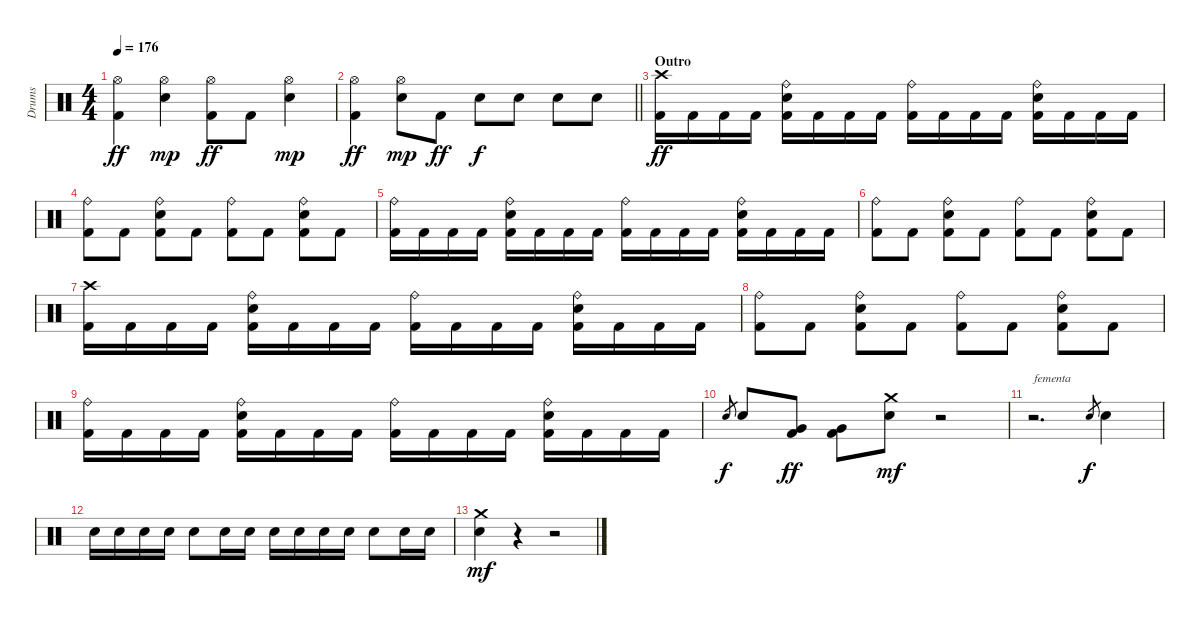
\track ("Drums" "Drums") {instrument percussion}
\staff {score}
\articulation defaults
\ts (4 4)
\tempo 176
\clef neutral
\ks c
("Hi-Hat (open)" "Kick (hit) 2").4{dy ff} ("Hi-Hat (open)" "Electric Snare (hit)").4{dy mp} ("Hi-Hat (open)" "Kick (hit) 2").8{dy ff} "Kick (hit) 2".8 ("Hi-Hat (open)" "Electric Snare (hit)").4{dy mp} |
\barLineRight lightlight
("Hi-Hat (open)" "Kick (hit) 2").4{dy ff} ("Hi-Hat (open)" "Electric Snare (hit)").8{dy mp} "Kick (hit) 2".8{dy ff} "Electric Snare (hit)".8{dy f} "Electric Snare (hit)".8 "Electric Snare (hit)".8 "Electric Snare (hit)".8 |
\section ("" "Outro")
("Crash high (hit)" "Kick (hit) 2").16{dy ff} "Kick (hit) 2".16 "Kick (hit) 2".16 "Kick (hit) 2".16 ("Ride (bell)" "Electric Snare (hit)" "Kick (hit) 2").16 "Kick (hit) 2".16 "Kick (hit) 2".16 "Kick (hit) 2".16 ("Ride (bell)" "Kick (hit) 2").16 "Kick (hit) 2".16 "Kick (hit) 2".16 "Kick (hit) 2".16 ("Ride (bell)" "Electric Snare (hit)" "Kick (hit) 2").16 "Kick (hit) 2".16 "Kick (hit) 2".16 "Kick (hit) 2".16 |
("Ride (bell)" "Kick (hit) 2").8 "Kick (hit) 2".8 ("Ride (bell)" "Electric Snare (hit)" "Kick (hit) 2").8 "Kick (hit) 2".8 ("Ride (bell)" "Kick (hit) 2").8 "Kick (hit) 2".8 ("Ride (bell)" "Electric Snare (hit)" "Kick (hit) 2").8 "Kick (hit) 2".8 |
("Ride (bell)" "Kick (hit) 2").16 "Kick (hit) 2".16 "Kick (hit) 2".16 "Kick (hit) 2".16 ("Ride (bell)" "Electric Snare (hit)" "Kick (hit) 2").16 "Kick (hit) 2".16 "Kick (hit) 2".16 "Kick (hit) 2".16 ("Ride (bell)" "Kick (hit) 2").16 "Kick (hit) 2".16 "Kick (hit) 2".16 "Kick (hit) 2".16 ("Ride (bell)" "Electric Snare (hit)" "Kick (hit) 2").16 "Kick (hit) 2".16 "Kick (hit) 2".16 "Kick (hit) 2".16 |
("Ride (bell)" "Kick (hit) 2").8 "Kick (hit) 2".8 ("Ride (bell)" "Electric Snare (hit)" "Kick (hit) 2").8 "Kick (hit) 2".8 ("Ride (bell)" "Kick (hit) 2").8 "Kick (hit) 2".8 ("Ride (bell)" "Electric Snare (hit)" "Kick (hit) 2").8 "Kick (hit) 2".8 |
("Crash high (hit)" "Kick (hit) 2").16 "Kick (hit) 2".16 "Kick (hit) 2".16 "Kick (hit) 2".16 ("Ride (bell)" "Electric Snare (hit)" "Kick (hit) 2").16 "Kick (hit) 2".16 "Kick (hit) 2".16 "Kick (hit) 2".16 ("Ride (bell)" "Kick (hit) 2").16 "Kick (hit) 2".16 "Kick (hit) 2".16 "Kick (hit) 2".16 ("Ride (bell)" "Electric Snare (hit)" "Kick (hit) 2").16 "Kick (hit) 2".16 "Kick (hit) 2".16 "Kick (hit) 2".16 |
("Ride (bell)" "Kick (hit) 2").8 "Kick (hit) 2".8 ("Ride (bell)" "Electric Snare (hit)" "Kick (hit) 2").8 "Kick (hit) 2".8 ("Ride (bell)" "Kick (hit) 2").8 "Kick (hit) 2".8 ("Ride (bell)" "Electric Snare (hit)" "Kick (hit) 2").8 "Kick (hit) 2".8 |
("Ride (bell)" "Kick (hit) 2").16 "Kick (hit) 2".16 "Kick (hit) 2".16 "Kick (hit) 2".16 ("Ride (bell)" "Electric Snare (hit)" "Kick (hit) 2").16 "Kick (hit) 2".16 "Kick (hit) 2".16 "Kick (hit) 2".16 ("Ride (bell)" "Kick (hit) 2").16 "Kick (hit) 2".16 "Kick (hit) 2".16 "Kick (hit) 2".16 ("Ride (bell)" "Electric Snare (hit)" "Kick (hit) 2").16 "Kick (hit) 2".16 "Kick (hit) 2".16 "Kick (hit) 2".16 |
"Electric Snare (hit)".8{gr dy f} "Electric Snare (hit)".8 ("Very Low Tom (hit)" "Kick (hit) 2").8{dy ff} ("Very Low Tom (hit)" "Kick (hit) 2").8 ("Crash medium (hit)" "Electric Snare (hit)").8{dy mf} r.2 |
r.2{d txt "fementa"} "Electric Snare (hit)".8{gr dy f} "Electric Snare (hit)".4 |
"Electric Snare (hit)".16 "Electric Snare (hit)".16 "Electric Snare (hit)".16 "Electric Snare (hit)".16 "Electric Snare (hit)".8 "Electric Snare (hit)".16 "Electric Snare (hit)".16 "Electric Snare (hit)".16 "Electric Snare (hit)".16 "Electric Snare (hit)".16 "Electric Snare (hit)".16 "Electric Snare (hit)".8 "Electric Snare (hit)".16 "Electric Snare (hit)".16 |
("Crash medium (hit)" "Electric Snare (hit)").4{dy mf} r.4 r.2
